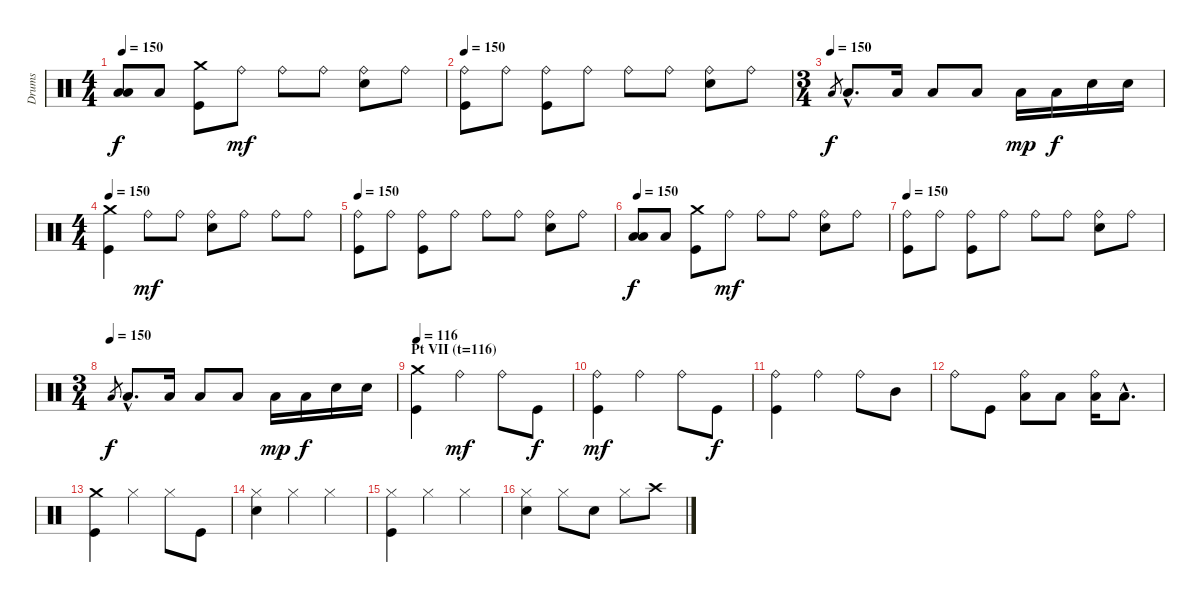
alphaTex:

\track ("Drums" "Drums") {instrument percussion}
\staff {score}
\articulation defaults
\ts (4 4)
\tempo 150
\clef neutral
\ks c
("Low Tom (hit)" "Low Tom (hit)").8{dy f} "Low Tom (hit)".8 ("Kick (hit)" "Crash medium (hit)").8 "Ride (bell)".8{dy mf} "Ride (bell)".8 "Ride (bell)".8 ("Electric Snare (hit)" "Ride (bell)").8 "Ride (bell)".8 |
\tempo 150
("Kick (hit)" "Ride (bell)").8 "Ride (bell)".8 ("Kick (hit)" "Ride (bell)").8 "Ride (bell)".8 "Ride (bell)".8 "Ride (bell)".8 ("Electric Snare (hit)" "Ride (bell)").8 "Ride (bell)".8 |
\ts (3 4)
\tempo (150)
"Low Tom (hit)".8{gr dy f} "Low Tom (hit)"{hac}.8{d} "Low Tom (hit)".16 "Low Tom (hit)".8 "Low Tom (hit)".8 "Low Tom (hit)".16{dy mp} "Low Tom (hit)".16{dy f} "Electric Snare (hit)".16 "Electric Snare (hit)".16 |
\ts (4 4)
\tempo 150
("Kick (hit)" "Crash medium (hit)").4 "Ride (bell)".8{dy mf} "Ride (bell)".8 ("Electric Snare (hit)" "Ride (bell)").8 "Ride (bell)".8 "Ride (bell)".8 "Ride (bell)".8 |
\tempo 150
("Kick (hit)" "Ride (bell)").8 "Ride (bell)".8 ("Kick (hit)" "Ride (bell)").8 "Ride (bell)".8 "Ride (bell)".8 "Ride (bell)".8 ("Electric Snare (hit)" "Ride (bell)").8 "Ride (bell)".8 |
\tempo 150
("Low Tom (hit)" "Low Tom (hit)").8{dy f} "Low Tom (hit)".8 ("Kick (hit)" "Crash medium (hit)").8 "Ride (bell)".8{dy mf} "Ride (bell)".8 "Ride (bell)".8 ("Electric Snare (hit)" "Ride (bell)").8 "Ride (bell)".8 |
\tempo 150
("Kick (hit)" "Ride (bell)").8 "Ride (bell)".8 ("Kick (hit)" "Ride (bell)").8 "Ride (bell)".8 "Ride (bell)".8 "Ride (bell)".8 ("Electric Snare (hit)" "Ride (bell)").8 "Ride (bell)".8 |
\ts (3 4)
\tempo (150)
"Low Tom (hit)".8{gr dy f} "Low Tom (hit)"{hac}.8{d} "Low Tom (hit)".16 "Low Tom (hit)".8 "Low Tom (hit)".8 "Low Tom (hit)".16{dy mp} "Low Tom (hit)".16{dy f} "Electric Snare (hit)".16 "Electric Snare (hit)".16 |
\section ("" "Pt VII (t=116)")
\tempo 116
("Kick (hit)" "Crash medium (hit)").4 "Ride (bell)".4{dy mf} "Ride (bell)".8 "Kick (hit)".8{dy f} |
("Kick (hit)" "Ride (bell)").4{dy mf} "Ride (bell)".4 "Ride (bell)".8 "Kick (hit)".8{dy f} |
("Kick (hit)" "Ride (bell)").4 "Ride (bell)".4 "Ride (bell)".8 "Mid Tom (hit)".8 |
"Ride (bell)".8 "Kick (hit)".8 ("Low Tom (hit)" "Ride (bell)").8 "Low Tom (hit)".8 ("Low Tom (hit)" "Ride (bell)").16 "Low Tom (hit)"{hac}.8{d} |
("Kick (hit)" "Crash medium (hit)").4 "Hi-Hat (closed)".4 "Hi-Hat (closed)".8 "Kick (hit)".8 |
("Electric Snare (hit)" "Hi-Hat (closed)").4 "Hi-Hat (closed)".4 "Hi-Hat (closed)".4 |
("Kick (hit)" "Hi-Hat (closed)").4 "Hi-Hat (closed)".4 "Hi-Hat (closed)".4 |
("Electric Snare (hit)" "Hi-Hat (closed)").4 "Hi-Hat (closed)".8 "Electric Snare (hit)".8 "Hi-Hat (closed)".8 "Crash high (hit)".8
